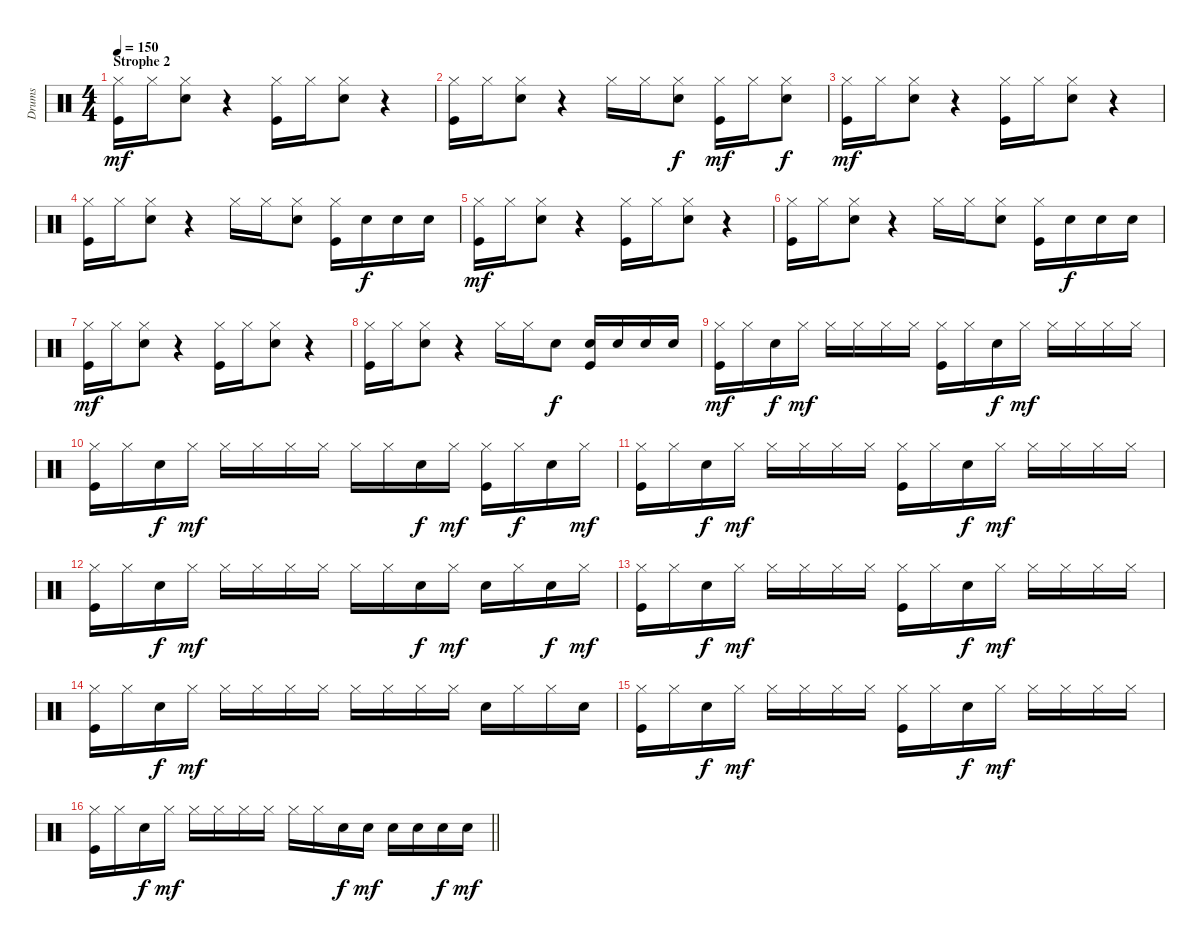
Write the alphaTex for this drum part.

\track ("Drums" "Drums") {instrument percussion}
\staff {score}
\articulation defaults
\ts (4 4)
\section ("" "Strophe 2")
\tempo 150
\clef neutral
\ks c
("Hi-Hat (closed)" "Kick (hit)").16{dy mf} "Hi-Hat (closed)".16 ("Hi-Hat (closed)" "Snare (hit) 2").8 r.4 ("Hi-Hat (closed)" "Kick (hit)").16 "Hi-Hat (closed)".16 ("Hi-Hat (closed)" "Snare (hit) 2").8 r.4 |
("Hi-Hat (closed)" "Kick (hit)").16 "Hi-Hat (closed)".16 ("Hi-Hat (closed)" "Snare (hit) 2").8 r.4 "Hi-Hat (closed)".16 "Hi-Hat (closed)".16 ("Hi-Hat (closed)" "Snare (hit) 2").8{dy f} ("Hi-Hat (closed)" "Kick (hit)").16{dy mf} "Hi-Hat (closed)".16 ("Hi-Hat (closed)" "Snare (hit) 2").8{dy f} |
("Hi-Hat (closed)" "Kick (hit)").16{dy mf} "Hi-Hat (closed)".16 ("Hi-Hat (closed)" "Snare (hit) 2").8 r.4 ("Hi-Hat (closed)" "Kick (hit)").16 "Hi-Hat (closed)".16 ("Hi-Hat (closed)" "Snare (hit) 2").8 r.4 |
("Hi-Hat (closed)" "Kick (hit)").16 "Hi-Hat (closed)".16 ("Hi-Hat (closed)" "Snare (hit) 2").8 r.4 "Hi-Hat (closed)".16 "Hi-Hat (closed)".16 ("Hi-Hat (closed)" "Snare (hit) 2").8 ("Hi-Hat (closed)" "Kick (hit)").16 "Snare (hit) 2".16{dy f} "Snare (hit) 2".16 "Snare (hit) 2".16 |
("Hi-Hat (closed)" "Kick (hit)").16{dy mf} "Hi-Hat (closed)".16 ("Hi-Hat (closed)" "Snare (hit) 2").8 r.4 ("Hi-Hat (closed)" "Kick (hit)").16 "Hi-Hat (closed)".16 ("Hi-Hat (closed)" "Snare (hit) 2").8 r.4 |
("Hi-Hat (closed)" "Kick (hit)").16 "Hi-Hat (closed)".16 ("Hi-Hat (closed)" "Snare (hit) 2").8 r.4 "Hi-Hat (closed)".16 "Hi-Hat (closed)".16 ("Hi-Hat (closed)" "Snare (hit) 2").8 ("Hi-Hat (closed)" "Kick (hit)").16 "Snare (hit) 2".16{dy f} "Snare (hit) 2".16 "Snare (hit) 2".16 |
("Hi-Hat (closed)" "Kick (hit)").16{dy mf} "Hi-Hat (closed)".16 ("Hi-Hat (closed)" "Snare (hit) 2").8 r.4 ("Hi-Hat (closed)" "Kick (hit)").16 "Hi-Hat (closed)".16 ("Hi-Hat (closed)" "Snare (hit) 2").8 r.4 |
("Hi-Hat (closed)" "Kick (hit)").16 "Hi-Hat (closed)".16 ("Hi-Hat (closed)" "Snare (hit) 2").8 r.4 "Hi-Hat (closed)".16 "Hi-Hat (closed)".16 "Snare (hit) 2".8{dy f} ("Snare (hit) 2" "Kick (hit)").16 "Snare (hit) 2".16 "Snare (hit) 2".16 "Snare (hit) 2".16 |
("Hi-Hat (closed)" "Kick (hit)").16{dy mf} "Hi-Hat (closed)".16 "Snare (hit) 2".16{dy f} "Hi-Hat (closed)".16{dy mf} "Hi-Hat (closed)".16 "Hi-Hat (closed)".16 "Hi-Hat (closed)".16 "Hi-Hat (closed)".16 ("Hi-Hat (closed)" "Kick (hit)").16 "Hi-Hat (closed)".16 "Snare (hit) 2".16{dy f} "Hi-Hat (closed)".16{dy mf} "Hi-Hat (closed)".16 "Hi-Hat (closed)".16 "Hi-Hat (closed)".16 "Hi-Hat (closed)".16 |
("Hi-Hat (closed)" "Kick (hit)").16 "Hi-Hat (closed)".16 "Snare (hit) 2".16{dy f} "Hi-Hat (closed)".16{dy mf} "Hi-Hat (closed)".16 "Hi-Hat (closed)".16 "Hi-Hat (closed)".16 "Hi-Hat (closed)".16 "Hi-Hat (closed)".16 "Hi-Hat (closed)".16 "Snare (hit) 2".16{dy f} "Hi-Hat (closed)".16{dy mf} ("Hi-Hat (closed)" "Kick (hit)").16 "Hi-Hat (closed)".16{dy f} "Snare (hit) 2".16 "Hi-Hat (closed)".16{dy mf} |
("Hi-Hat (closed)" "Kick (hit)").16 "Hi-Hat (closed)".16 "Snare (hit) 2".16{dy f} "Hi-Hat (closed)".16{dy mf} "Hi-Hat (closed)".16 "Hi-Hat (closed)".16 "Hi-Hat (closed)".16 "Hi-Hat (closed)".16 ("Hi-Hat (closed)" "Kick (hit)").16 "Hi-Hat (closed)".16 "Snare (hit) 2".16{dy f} "Hi-Hat (closed)".16{dy mf} "Hi-Hat (closed)".16 "Hi-Hat (closed)".16 "Hi-Hat (closed)".16 "Hi-Hat (closed)".16 |
("Hi-Hat (closed)" "Kick (hit)").16 "Hi-Hat (closed)".16 "Snare (hit) 2".16{dy f} "Hi-Hat (closed)".16{dy mf} "Hi-Hat (closed)".16 "Hi-Hat (closed)".16 "Hi-Hat (closed)".16 "Hi-Hat (closed)".16 "Hi-Hat (closed)".16 "Hi-Hat (closed)".16 "Snare (hit) 2".16{dy f} "Hi-Hat (closed)".16{dy mf} "Snare (hit) 2".16 "Hi-Hat (closed)".16 "Snare (hit) 2".16{dy f} "Hi-Hat (closed)".16{dy mf} |
("Hi-Hat (closed)" "Kick (hit)").16 "Hi-Hat (closed)".16 "Snare (hit) 2".16{dy f} "Hi-Hat (closed)".16{dy mf} "Hi-Hat (closed)".16 "Hi-Hat (closed)".16 "Hi-Hat (closed)".16 "Hi-Hat (closed)".16 ("Hi-Hat (closed)" "Kick (hit)").16 "Hi-Hat (closed)".16 "Snare (hit) 2".16{dy f} "Hi-Hat (closed)".16{dy mf} "Hi-Hat (closed)".16 "Hi-Hat (closed)".16 "Hi-Hat (closed)".16 "Hi-Hat (closed)".16 |
("Hi-Hat (closed)" "Kick (hit)").16 "Hi-Hat (closed)".16 "Snare (hit) 2".16{dy f} "Hi-Hat (closed)".16{dy mf} "Hi-Hat (closed)".16 "Hi-Hat (closed)".16 "Hi-Hat (closed)".16 "Hi-Hat (closed)".16 "Hi-Hat (closed)".16 "Hi-Hat (closed)".16 "Hi-Hat (closed)".16 "Hi-Hat (closed)".16 "Snare (hit) 2".16 "Hi-Hat (closed)".16 "Hi-Hat (closed)".16 "Snare (hit) 2".16 |
("Hi-Hat (closed)" "Kick (hit)").16 "Hi-Hat (closed)".16 "Snare (hit) 2".16{dy f} "Hi-Hat (closed)".16{dy mf} "Hi-Hat (closed)".16 "Hi-Hat (closed)".16 "Hi-Hat (closed)".16 "Hi-Hat (closed)".16 ("Hi-Hat (closed)" "Kick (hit)").16 "Hi-Hat (closed)".16 "Snare (hit) 2".16{dy f} "Hi-Hat (closed)".16{dy mf} "Hi-Hat (closed)".16 "Hi-Hat (closed)".16 "Hi-Hat (closed)".16 "Hi-Hat (closed)".16 |
\barLineRight lightlight
("Hi-Hat (closed)" "Kick (hit)").16 "Hi-Hat (closed)".16 "Snare (hit) 2".16{dy f} "Hi-Hat (closed)".16{dy mf} "Hi-Hat (closed)".16 "Hi-Hat (closed)".16 "Hi-Hat (closed)".16 "Hi-Hat (closed)".16 "Hi-Hat (closed)".16 "Hi-Hat (closed)".16 "Snare (hit) 2".16{dy f} "Snare (hit) 2".16{dy mf} "Snare (hit) 2".16 "Snare (hit) 2".16 "Snare (hit) 2".16{dy f} "Snare (hit) 2".16{dy mf}
